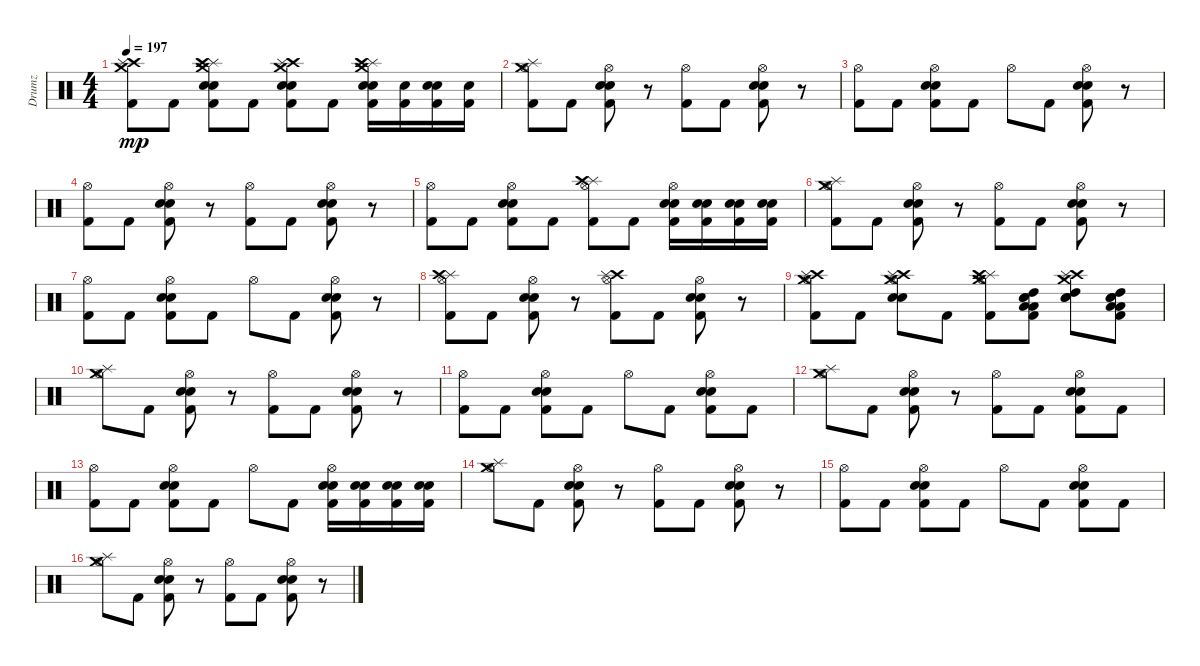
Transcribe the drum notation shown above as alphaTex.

\track ("Drumz" "Drumz") {instrument percussion}
\staff {score}
\articulation defaults
\ts (4 4)
\tempo 197
\clef neutral
\ks c
("Crash high (hit)" "Splash (hit)" "Kick (hit) 2" "Crash medium (hit)").8{dy mp} "Kick (hit) 2".8 ("Crash medium (hit)" "Splash (hit)" "Snare (hit) 2" "Electric Snare (hit)" "Kick (hit) 2" "Crash high (hit)").8 "Kick (hit) 2".8 ("Crash high (hit)" "Splash (hit)" "Snare (hit) 2" "Electric Snare (hit)" "Kick (hit) 2" "Crash medium (hit)").8 "Kick (hit) 2".8 ("Splash (hit)" "Crash medium (hit)" "Snare (hit) 2" "Electric Snare (hit)" "Kick (hit) 2" "Crash high (hit)").16 ("Snare (hit) 2" "Kick (hit) 2").16 ("Electric Snare (hit)" "Snare (hit) 2" "Kick (hit) 2").16 ("Snare (hit) 2" "Kick (hit) 2").16 |
("Splash (hit)" "Crash medium (hit)" "Kick (hit) 2" "Hi-Hat (open)").8 "Kick (hit) 2".8 ("Kick (hit) 2" "Snare (hit) 2" "Electric Snare (hit)" "Hi-Hat (open)").8 r.8 ("Kick (hit) 2" "Hi-Hat (open)").8 "Kick (hit) 2".8 ("Kick (hit) 2" "Snare (hit) 2" "Electric Snare (hit)" "Hi-Hat (open)").8 r.8 |
("Hi-Hat (open)" "Kick (hit) 2").8 "Kick (hit) 2".8 ("Hi-Hat (open)" "Snare (hit) 2" "Electric Snare (hit)" "Kick (hit) 2").8 "Kick (hit) 2".8 "Hi-Hat (open)".8 "Kick (hit) 2".8 ("Hi-Hat (open)" "Snare (hit) 2" "Electric Snare (hit)" "Kick (hit) 2").8 r.8 |
("Kick (hit) 2" "Hi-Hat (open)").8 "Kick (hit) 2".8 ("Kick (hit) 2" "Snare (hit) 2" "Electric Snare (hit)" "Hi-Hat (open)").8 r.8 ("Kick (hit) 2" "Hi-Hat (open)").8 "Kick (hit) 2".8 ("Kick (hit) 2" "Snare (hit) 2" "Electric Snare (hit)" "Hi-Hat (open)").8 r.8 |
("Hi-Hat (open)" "Kick (hit) 2").8 "Kick (hit) 2".8 ("Hi-Hat (open)" "Snare (hit) 2" "Electric Snare (hit)" "Kick (hit) 2").8 "Kick (hit) 2".8 ("Kick (hit) 2" "Splash (hit)" "Crash high (hit)" "Hi-Hat (open)").8 "Kick (hit) 2".8 ("Kick (hit) 2" "Snare (hit) 2" "Electric Snare (hit)" "Hi-Hat (open)").16 ("Electric Snare (hit)" "Snare (hit) 2" "Kick (hit) 2").16 ("Snare (hit) 2" "Electric Snare (hit)" "Kick (hit) 2").16 ("Snare (hit) 2" "Electric Snare (hit)" "Kick (hit) 2").16 |
("Splash (hit)" "Crash medium (hit)" "Kick (hit) 2" "Hi-Hat (open)").8 "Kick (hit) 2".8 ("Kick (hit) 2" "Snare (hit) 2" "Electric Snare (hit)" "Hi-Hat (open)").8 r.8 ("Kick (hit) 2" "Hi-Hat (open)").8 "Kick (hit) 2".8 ("Kick (hit) 2" "Snare (hit) 2" "Electric Snare (hit)" "Hi-Hat (open)").8 r.8 |
("Hi-Hat (open)" "Kick (hit) 2").8 "Kick (hit) 2".8 ("Hi-Hat (open)" "Snare (hit) 2" "Electric Snare (hit)" "Kick (hit) 2").8 "Kick (hit) 2".8 "Hi-Hat (open)".8 "Kick (hit) 2".8 ("Hi-Hat (open)" "Snare (hit) 2" "Electric Snare (hit)" "Kick (hit) 2").8 r.8 |
("Splash (hit)" "Crash high (hit)" "Kick (hit) 2" "Hi-Hat (open)").8 "Kick (hit) 2".8 ("Kick (hit) 2" "Snare (hit) 2" "Electric Snare (hit)" "Hi-Hat (open)").8 r.8 ("Crash high (hit)" "Splash (hit)" "Kick (hit) 2" "Hi-Hat (open)").8 "Kick (hit) 2".8 ("Kick (hit) 2" "Snare (hit) 2" "Electric Snare (hit)" "Hi-Hat (open)").8 r.8 |
("Crash high (hit)" "Splash (hit)" "Crash medium (hit)" "Hi-Hat (open)" "Kick (hit) 2").8 "Kick (hit) 2".8 ("Crash high (hit)" "Crash medium (hit)" "Splash (hit)" "Hi-Hat (open)" "Snare (hit) 2" "Electric Snare (hit)").8 "Kick (hit) 2".8 ("Kick (hit) 2" "Splash (hit)" "Crash high (hit)" "Crash medium (hit)" "Hi-Hat (open)").8 ("Snare (hit) 2" "Electric Snare (hit)" "Low Floor Tom (hit)" "High Tom (hit)" "Low Tom (hit)" "Kick (hit) 2").8 ("Crash high (hit)" "Crash medium (hit)" "Splash (hit)" "High Tom (hit)" "Snare (hit) 2" "Electric Snare (hit)").8 ("High Tom (hit)" "Low Floor Tom (hit)" "Electric Snare (hit)" "Snare (hit) 2" "Kick (hit) 2" "Low Tom (hit)").8 |
("Splash (hit)" "Crash medium (hit)" "Hi-Hat (open)").8 "Kick (hit) 2".8 ("Kick (hit) 2" "Snare (hit) 2" "Electric Snare (hit)" "Hi-Hat (open)").8 r.8 ("Kick (hit) 2" "Hi-Hat (open)").8 "Kick (hit) 2".8 ("Kick (hit) 2" "Snare (hit) 2" "Electric Snare (hit)" "Hi-Hat (open)").8 r.8 |
("Hi-Hat (open)" "Kick (hit) 2").8 "Kick (hit) 2".8 ("Hi-Hat (open)" "Snare (hit) 2" "Electric Snare (hit)" "Kick (hit) 2").8 "Kick (hit) 2".8 "Hi-Hat (open)".8 "Kick (hit) 2".8 ("Hi-Hat (open)" "Snare (hit) 2" "Electric Snare (hit)" "Kick (hit) 2").8 "Kick (hit) 2".8 |
("Splash (hit)" "Crash medium (hit)" "Hi-Hat (open)").8 "Kick (hit) 2".8 ("Kick (hit) 2" "Snare (hit) 2" "Electric Snare (hit)" "Hi-Hat (open)").8 r.8 ("Kick (hit) 2" "Hi-Hat (open)").8 "Kick (hit) 2".8 ("Kick (hit) 2" "Snare (hit) 2" "Electric Snare (hit)" "Hi-Hat (open)").8 "Kick (hit) 2".8 |
("Hi-Hat (open)" "Kick (hit) 2").8 "Kick (hit) 2".8 ("Hi-Hat (open)" "Snare (hit) 2" "Electric Snare (hit)" "Kick (hit) 2").8 "Kick (hit) 2".8 "Hi-Hat (open)".8 "Kick (hit) 2".8 ("Hi-Hat (open)" "Snare (hit) 2" "Electric Snare (hit)" "Kick (hit) 2").16 ("Kick (hit) 2" "Snare (hit) 2" "Electric Snare (hit)").16 ("Snare (hit) 2" "Electric Snare (hit)" "Kick (hit) 2").16 ("Snare (hit) 2" "Electric Snare (hit)" "Kick (hit) 2").16 |
("Splash (hit)" "Crash medium (hit)" "Hi-Hat (open)").8 "Kick (hit) 2".8 ("Kick (hit) 2" "Snare (hit) 2" "Electric Snare (hit)" "Hi-Hat (open)").8 r.8 ("Kick (hit) 2" "Hi-Hat (open)").8 "Kick (hit) 2".8 ("Kick (hit) 2" "Snare (hit) 2" "Electric Snare (hit)" "Hi-Hat (open)").8 r.8 |
("Kick (hit) 2" "Hi-Hat (open)").8 "Kick (hit) 2".8 ("Hi-Hat (open)" "Snare (hit) 2" "Electric Snare (hit)" "Kick (hit) 2").8 "Kick (hit) 2".8 "Hi-Hat (open)".8 "Kick (hit) 2".8 ("Hi-Hat (open)" "Snare (hit) 2" "Electric Snare (hit)" "Kick (hit) 2").8 "Kick (hit) 2".8 |
("Splash (hit)" "Crash medium (hit)" "Hi-Hat (open)").8 "Kick (hit) 2".8 ("Kick (hit) 2" "Snare (hit) 2" "Electric Snare (hit)" "Hi-Hat (open)").8 r.8 ("Kick (hit) 2" "Hi-Hat (open)").8 "Kick (hit) 2".8 ("Kick (hit) 2" "Snare (hit) 2" "Electric Snare (hit)" "Hi-Hat (open)").8 r.8
